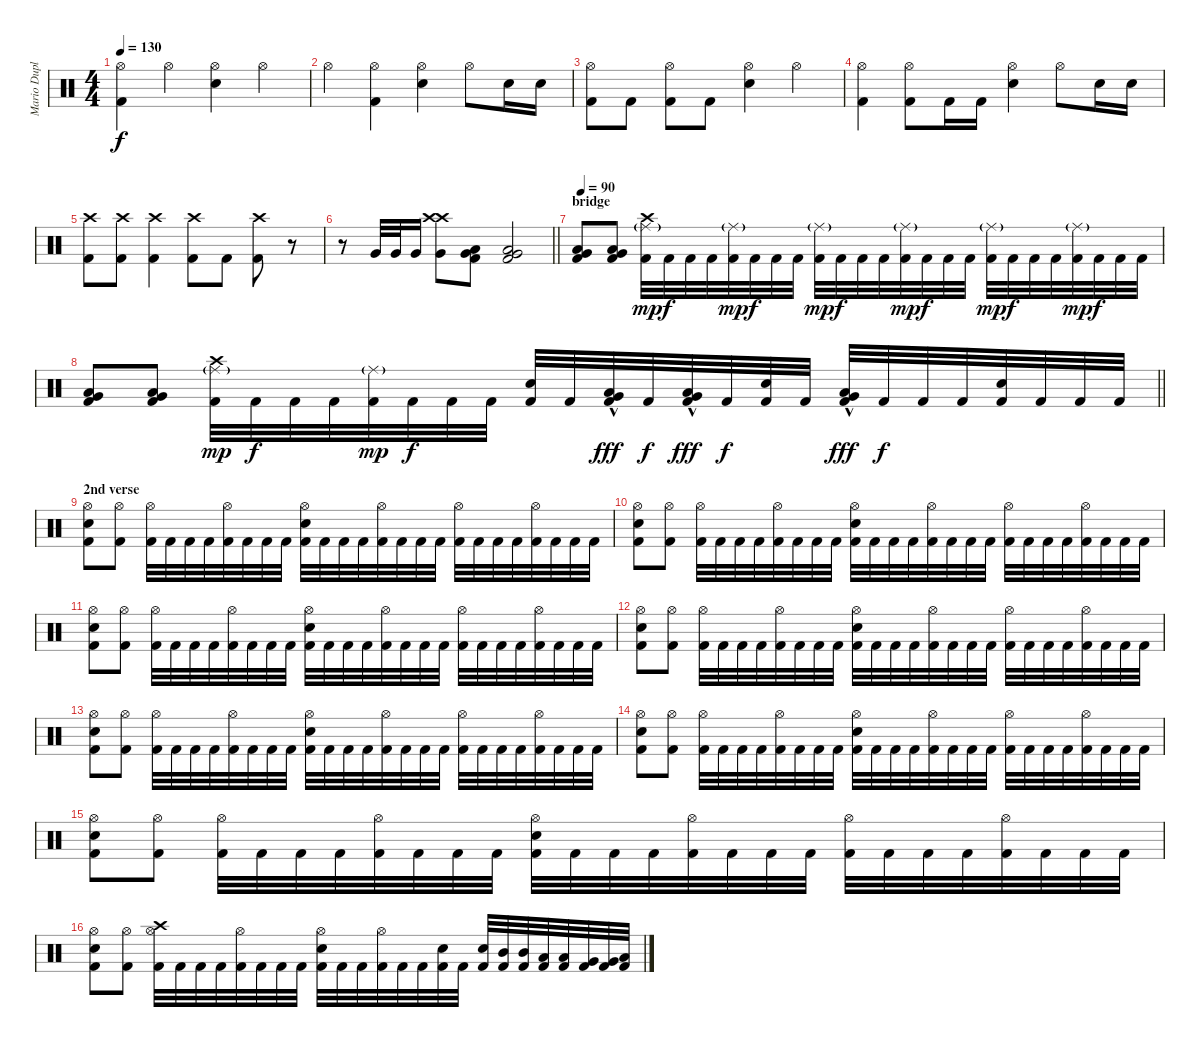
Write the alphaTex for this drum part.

\track ("Mario Duplantier" "Mario Dupl") {instrument percussion}
\staff {score}
\articulation defaults
\ts (4 4)
\tempo 130
\clef neutral
\ks c
("Hi-Hat (open)" "Kick (hit) 2").4{dy f} "Hi-Hat (open)".4 ("Hi-Hat (open)" "Electric Snare (hit)").4 "Hi-Hat (open)".4 |
"Hi-Hat (open)".4 ("Hi-Hat (open)" "Kick (hit) 2").4 ("Hi-Hat (open)" "Electric Snare (hit)").4 "Hi-Hat (open)".8 "Electric Snare (hit)".16 "Electric Snare (hit)".16 |
("Hi-Hat (open)" "Kick (hit) 2").8 "Kick (hit) 2".8 ("Hi-Hat (open)" "Kick (hit) 2").8 "Kick (hit) 2".8 ("Hi-Hat (open)" "Electric Snare (hit)").4 "Hi-Hat (open)".4 |
("Hi-Hat (open)" "Kick (hit) 2").4 ("Hi-Hat (open)" "Kick (hit) 2").8 "Kick (hit) 2".16 "Kick (hit) 2".16 ("Hi-Hat (open)" "Electric Snare (hit)").4 "Hi-Hat (open)".8 "Electric Snare (hit)".16 "Electric Snare (hit)".16 |
("Crash high (hit)" "Kick (hit) 2").8 ("Crash high (hit)" "Kick (hit) 2").8 ("Crash high (hit)" "Kick (hit) 2").4 ("Crash high (hit)" "Kick (hit) 2").8 "Kick (hit) 2".8 ("Crash high (hit)" "Kick (hit) 2").8 r.8 |
\barLineRight lightlight
r.8 "Very Low Tom (hit)".32 "Very Low Tom (hit)".32 "Very Low Tom (hit)".16 ("Crash high (hit)" "Very Low Tom (hit)" "Crash high (hit)").8 ("Low Tom (hit)" "Very Low Tom (hit)" "Kick (hit) 2").8 ("Low Tom (hit)" "Very Low Tom (hit)" "Kick (hit) 2").2 |
\section ("" "bridge")
\tempo 90
("Low Floor Tom (hit)" "Very Low Tom (hit)" "Kick (hit) 2").8 ("Low Floor Tom (hit)" "Very Low Tom (hit)" "Kick (hit) 2").8 ("Crash high (hit)" "Ride (middle)"{g} "Kick (hit) 2").32{dy mp} "Kick (hit) 2".32{dy f} "Kick (hit) 2".32 "Kick (hit) 2".32 ("Ride (middle)"{g} "Kick (hit) 2").32{dy mp} "Kick (hit) 2".32{dy f} "Kick (hit) 2".32 "Kick (hit) 2".32 ("Ride (middle)"{g} "Kick (hit) 2").32{dy mp} "Kick (hit) 2".32{dy f} "Kick (hit) 2".32 "Kick (hit) 2".32 ("Ride (middle)"{g} "Kick (hit) 2").32{dy mp} "Kick (hit) 2".32{dy f} "Kick (hit) 2".32 "Kick (hit) 2".32 ("Ride (middle)"{g} "Kick (hit) 2").32{dy mp} "Kick (hit) 2".32{dy f} "Kick (hit) 2".32 "Kick (hit) 2".32 ("Ride (middle)"{g} "Kick (hit) 2").32{dy mp} "Kick (hit) 2".32{dy f} "Kick (hit) 2".32 "Kick (hit) 2".32 |
\barLineRight lightlight
("Low Floor Tom (hit)" "Very Low Tom (hit)" "Kick (hit) 2").8 ("Low Floor Tom (hit)" "Very Low Tom (hit)" "Kick (hit) 2").8 ("Crash high (hit)" "Ride (middle)"{g} "Kick (hit) 2").32{dy mp} "Kick (hit) 2".32{dy f} "Kick (hit) 2".32 "Kick (hit) 2".32 ("Ride (middle)"{g} "Kick (hit) 2").32{dy mp} "Kick (hit) 2".32{dy f} "Kick (hit) 2".32 "Kick (hit) 2".32 ("Electric Snare (hit)" "Kick (hit) 2").32 "Kick (hit) 2".32 ("Low Tom (hit)"{hac} "Very Low Tom (hit)" "Kick (hit) 2").32{dy fff} "Kick (hit) 2".32{dy f} ("Low Tom (hit)"{hac} "Very Low Tom (hit)" "Kick (hit) 2").32{dy fff} "Kick (hit) 2".32{dy f} ("Electric Snare (hit)" "Kick (hit) 2").32 "Kick (hit) 2".32 ("Low Tom (hit)"{hac} "Very Low Tom (hit)" "Kick (hit) 2").32{dy fff} "Kick (hit) 2".32{dy f} "Kick (hit) 2".32 "Kick (hit) 2".32 ("Electric Snare (hit)" "Kick (hit) 2").32 "Kick (hit) 2".32 "Kick (hit) 2".32 "Kick (hit) 2".32 |
\section ("" "2nd verse")
("Hi-Hat (open)" "Electric Snare (hit)" "Kick (hit) 2").8 ("Hi-Hat (open)" "Kick (hit) 2").8 ("Hi-Hat (open)" "Kick (hit) 2").32 "Kick (hit) 2".32 "Kick (hit) 2".32 "Kick (hit) 2".32 ("Hi-Hat (open)" "Kick (hit) 2").32 "Kick (hit) 2".32 "Kick (hit) 2".32 "Kick (hit) 2".32 ("Hi-Hat (open)" "Electric Snare (hit)" "Kick (hit) 2").32 "Kick (hit) 2".32 "Kick (hit) 2".32 "Kick (hit) 2".32 ("Hi-Hat (open)" "Kick (hit) 2").32 "Kick (hit) 2".32 "Kick (hit) 2".32 "Kick (hit) 2".32 ("Hi-Hat (open)" "Kick (hit) 2").32 "Kick (hit) 2".32 "Kick (hit) 2".32 "Kick (hit) 2".32 ("Hi-Hat (open)" "Kick (hit) 2").32 "Kick (hit) 2".32 "Kick (hit) 2".32 "Kick (hit) 2".32 |
("Hi-Hat (open)" "Electric Snare (hit)" "Kick (hit) 2").8 ("Hi-Hat (open)" "Kick (hit) 2").8 ("Hi-Hat (open)" "Kick (hit) 2").32 "Kick (hit) 2".32 "Kick (hit) 2".32 "Kick (hit) 2".32 ("Hi-Hat (open)" "Kick (hit) 2").32 "Kick (hit) 2".32 "Kick (hit) 2".32 "Kick (hit) 2".32 ("Hi-Hat (open)" "Electric Snare (hit)" "Kick (hit) 2").32 "Kick (hit) 2".32 "Kick (hit) 2".32 "Kick (hit) 2".32 ("Hi-Hat (open)" "Kick (hit) 2").32 "Kick (hit) 2".32 "Kick (hit) 2".32 "Kick (hit) 2".32 ("Hi-Hat (open)" "Kick (hit) 2").32 "Kick (hit) 2".32 "Kick (hit) 2".32 "Kick (hit) 2".32 ("Hi-Hat (open)" "Kick (hit) 2").32 "Kick (hit) 2".32 "Kick (hit) 2".32 "Kick (hit) 2".32 |
("Hi-Hat (open)" "Electric Snare (hit)" "Kick (hit) 2").8 ("Hi-Hat (open)" "Kick (hit) 2").8 ("Hi-Hat (open)" "Kick (hit) 2").32 "Kick (hit) 2".32 "Kick (hit) 2".32 "Kick (hit) 2".32 ("Hi-Hat (open)" "Kick (hit) 2").32 "Kick (hit) 2".32 "Kick (hit) 2".32 "Kick (hit) 2".32 ("Hi-Hat (open)" "Electric Snare (hit)" "Kick (hit) 2").32 "Kick (hit) 2".32 "Kick (hit) 2".32 "Kick (hit) 2".32 ("Hi-Hat (open)" "Kick (hit) 2").32 "Kick (hit) 2".32 "Kick (hit) 2".32 "Kick (hit) 2".32 ("Hi-Hat (open)" "Kick (hit) 2").32 "Kick (hit) 2".32 "Kick (hit) 2".32 "Kick (hit) 2".32 ("Hi-Hat (open)" "Kick (hit) 2").32 "Kick (hit) 2".32 "Kick (hit) 2".32 "Kick (hit) 2".32 |
("Hi-Hat (open)" "Electric Snare (hit)" "Kick (hit) 2").8 ("Hi-Hat (open)" "Kick (hit) 2").8 ("Hi-Hat (open)" "Kick (hit) 2").32 "Kick (hit) 2".32 "Kick (hit) 2".32 "Kick (hit) 2".32 ("Hi-Hat (open)" "Kick (hit) 2").32 "Kick (hit) 2".32 "Kick (hit) 2".32 "Kick (hit) 2".32 ("Hi-Hat (open)" "Electric Snare (hit)" "Kick (hit) 2").32 "Kick (hit) 2".32 "Kick (hit) 2".32 "Kick (hit) 2".32 ("Hi-Hat (open)" "Kick (hit) 2").32 "Kick (hit) 2".32 "Kick (hit) 2".32 "Kick (hit) 2".32 ("Hi-Hat (open)" "Kick (hit) 2").32 "Kick (hit) 2".32 "Kick (hit) 2".32 "Kick (hit) 2".32 ("Hi-Hat (open)" "Kick (hit) 2").32 "Kick (hit) 2".32 "Kick (hit) 2".32 "Kick (hit) 2".32 |
("Hi-Hat (open)" "Electric Snare (hit)" "Kick (hit) 2").8 ("Hi-Hat (open)" "Kick (hit) 2").8 ("Hi-Hat (open)" "Kick (hit) 2").32 "Kick (hit) 2".32 "Kick (hit) 2".32 "Kick (hit) 2".32 ("Hi-Hat (open)" "Kick (hit) 2").32 "Kick (hit) 2".32 "Kick (hit) 2".32 "Kick (hit) 2".32 ("Hi-Hat (open)" "Electric Snare (hit)" "Kick (hit) 2").32 "Kick (hit) 2".32 "Kick (hit) 2".32 "Kick (hit) 2".32 ("Hi-Hat (open)" "Kick (hit) 2").32 "Kick (hit) 2".32 "Kick (hit) 2".32 "Kick (hit) 2".32 ("Hi-Hat (open)" "Kick (hit) 2").32 "Kick (hit) 2".32 "Kick (hit) 2".32 "Kick (hit) 2".32 ("Hi-Hat (open)" "Kick (hit) 2").32 "Kick (hit) 2".32 "Kick (hit) 2".32 "Kick (hit) 2".32 |
("Hi-Hat (open)" "Electric Snare (hit)" "Kick (hit) 2").8 ("Hi-Hat (open)" "Kick (hit) 2").8 ("Hi-Hat (open)" "Kick (hit) 2").32 "Kick (hit) 2".32 "Kick (hit) 2".32 "Kick (hit) 2".32 ("Hi-Hat (open)" "Kick (hit) 2").32 "Kick (hit) 2".32 "Kick (hit) 2".32 "Kick (hit) 2".32 ("Hi-Hat (open)" "Electric Snare (hit)" "Kick (hit) 2").32 "Kick (hit) 2".32 "Kick (hit) 2".32 "Kick (hit) 2".32 ("Hi-Hat (open)" "Kick (hit) 2").32 "Kick (hit) 2".32 "Kick (hit) 2".32 "Kick (hit) 2".32 ("Hi-Hat (open)" "Kick (hit) 2").32 "Kick (hit) 2".32 "Kick (hit) 2".32 "Kick (hit) 2".32 ("Hi-Hat (open)" "Kick (hit) 2").32 "Kick (hit) 2".32 "Kick (hit) 2".32 "Kick (hit) 2".32 |
("Hi-Hat (open)" "Electric Snare (hit)" "Kick (hit) 2").8 ("Hi-Hat (open)" "Kick (hit) 2").8 ("Hi-Hat (open)" "Kick (hit) 2").32 "Kick (hit) 2".32 "Kick (hit) 2".32 "Kick (hit) 2".32 ("Hi-Hat (open)" "Kick (hit) 2").32 "Kick (hit) 2".32 "Kick (hit) 2".32 "Kick (hit) 2".32 ("Hi-Hat (open)" "Electric Snare (hit)" "Kick (hit) 2").32 "Kick (hit) 2".32 "Kick (hit) 2".32 "Kick (hit) 2".32 ("Hi-Hat (open)" "Kick (hit) 2").32 "Kick (hit) 2".32 "Kick (hit) 2".32 "Kick (hit) 2".32 ("Hi-Hat (open)" "Kick (hit) 2").32 "Kick (hit) 2".32 "Kick (hit) 2".32 "Kick (hit) 2".32 ("Hi-Hat (open)" "Kick (hit) 2").32 "Kick (hit) 2".32 "Kick (hit) 2".32 "Kick (hit) 2".32 |
("Hi-Hat (open)" "Electric Snare (hit)" "Kick (hit) 2").8 ("Hi-Hat (open)" "Kick (hit) 2").8 ("Crash high (hit)" "Hi-Hat (open)" "Kick (hit) 2").32 "Kick (hit) 2".32 "Kick (hit) 2".32 "Kick (hit) 2".32 ("Hi-Hat (open)" "Kick (hit) 2").32 "Kick (hit) 2".32 "Kick (hit) 2".32 "Kick (hit) 2".32 ("Hi-Hat (open)" "Electric Snare (hit)" "Kick (hit) 2").32 "Kick (hit) 2".32 "Kick (hit) 2".32 ("Hi-Hat (open)" "Kick (hit) 2").32 "Kick (hit) 2".32 "Kick (hit) 2".32 ("Electric Snare (hit)" "Kick (hit) 2").32 "Kick (hit) 2".32 ("Electric Snare (hit)" "Kick (hit) 2").32 ("Mid Tom (hit)" "Kick (hit) 2").32 ("Mid Tom (hit)" "Kick (hit) 2").32 ("Low Tom (hit)" "Kick (hit) 2").32 ("Low Tom (hit)" "Kick (hit) 2").32 ("Very Low Tom (hit)" "Kick (hit) 2").32 ("Very Low Tom (hit)" "Kick (hit) 2").32 ("Low Floor Tom (hit)" "Kick (hit) 2").32
